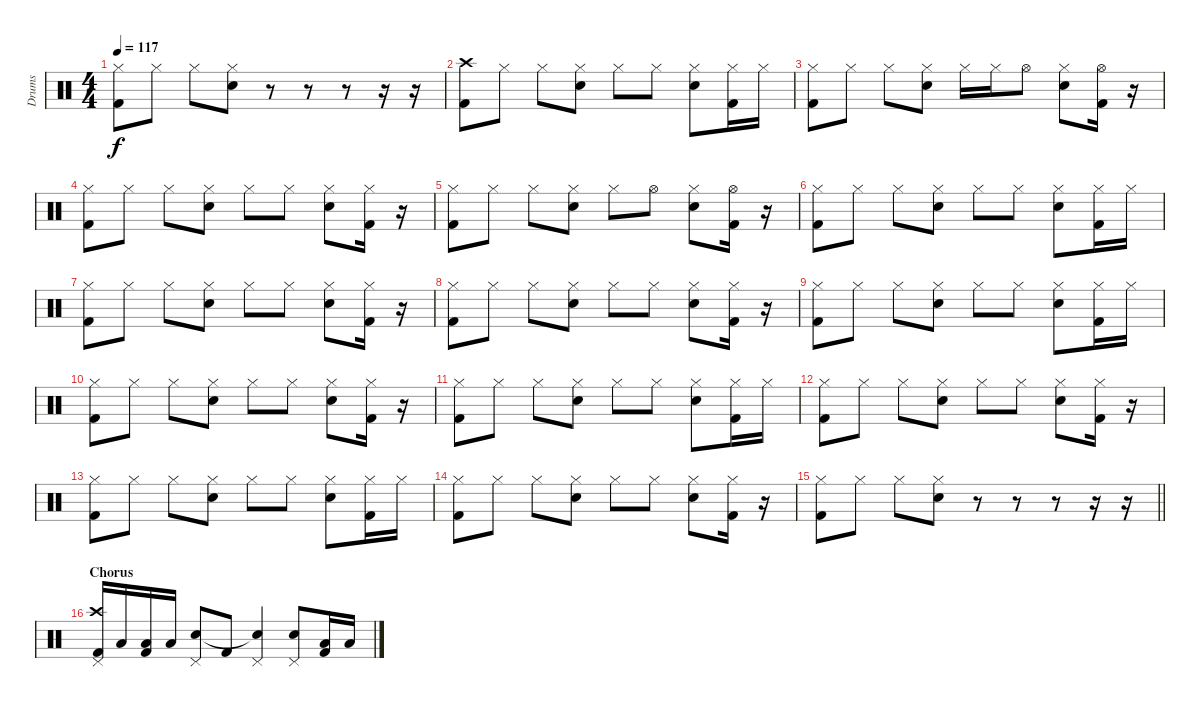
\track ("Drums" "Drums") {instrument percussion}
\staff {score}
\articulation defaults
\ts (4 4)
\tempo 117
\clef neutral
\ks c
("Hi-Hat (closed)" "Kick (hit) 2").8{dy f} "Hi-Hat (closed)".8 "Hi-Hat (closed)".8 ("Hi-Hat (closed)" "Snare (hit) 2").8 r.8 r.8 r.8 r.16 r.16 |
("Crash high (hit)" "Kick (hit) 2").8 "Hi-Hat (closed)".8 "Hi-Hat (closed)".8 ("Hi-Hat (closed)" "Snare (hit) 2").8 "Hi-Hat (closed)".8 "Hi-Hat (closed)".8 ("Hi-Hat (closed)" "Snare (hit) 2").8 ("Hi-Hat (closed)" "Kick (hit) 2").16 "Hi-Hat (closed)".16 |
("Hi-Hat (closed)" "Kick (hit) 2").8 "Hi-Hat (closed)".8 "Hi-Hat (closed)".8 ("Hi-Hat (closed)" "Snare (hit) 2").8 "Hi-Hat (closed)".16 "Hi-Hat (closed)".16 "Hi-Hat (open)".8 ("Hi-Hat (closed)" "Snare (hit) 2").8 ("Hi-Hat (open)" "Kick (hit) 2").16 r.16 |
("Hi-Hat (closed)" "Kick (hit) 2").8 "Hi-Hat (closed)".8 "Hi-Hat (closed)".8 ("Hi-Hat (closed)" "Snare (hit) 2").8 "Hi-Hat (closed)".8 "Hi-Hat (closed)".8 ("Hi-Hat (closed)" "Snare (hit) 2").8 ("Hi-Hat (closed)" "Kick (hit) 2").16 r.16 |
("Hi-Hat (closed)" "Kick (hit) 2").8 "Hi-Hat (closed)".8 "Hi-Hat (closed)".8 ("Hi-Hat (closed)" "Snare (hit) 2").8 "Hi-Hat (closed)".8 "Hi-Hat (open)".8 ("Hi-Hat (closed)" "Snare (hit) 2").8 ("Hi-Hat (open)" "Kick (hit) 2").16 r.16 |
("Hi-Hat (closed)" "Kick (hit) 2").8 "Hi-Hat (closed)".8 "Hi-Hat (closed)".8 ("Hi-Hat (closed)" "Snare (hit) 2").8 "Hi-Hat (closed)".8 "Hi-Hat (closed)".8 ("Hi-Hat (closed)" "Snare (hit) 2").8 ("Hi-Hat (closed)" "Kick (hit) 2").16 "Hi-Hat (closed)".16 |
("Hi-Hat (closed)" "Kick (hit) 2").8 "Hi-Hat (closed)".8 "Hi-Hat (closed)".8 ("Hi-Hat (closed)" "Snare (hit) 2").8 "Hi-Hat (closed)".8 "Hi-Hat (closed)".8 ("Hi-Hat (closed)" "Snare (hit) 2").8 ("Hi-Hat (closed)" "Kick (hit) 2").16 r.16 |
("Hi-Hat (closed)" "Kick (hit) 2").8 "Hi-Hat (closed)".8 "Hi-Hat (closed)".8 ("Hi-Hat (closed)" "Snare (hit) 2").8 "Hi-Hat (closed)".8 "Hi-Hat (closed)".8 ("Hi-Hat (closed)" "Snare (hit) 2").8 ("Hi-Hat (closed)" "Kick (hit) 2").16 r.16 |
("Hi-Hat (closed)" "Kick (hit) 2").8 "Hi-Hat (closed)".8 "Hi-Hat (closed)".8 ("Hi-Hat (closed)" "Snare (hit) 2").8 "Hi-Hat (closed)".8 "Hi-Hat (closed)".8 ("Hi-Hat (closed)" "Snare (hit) 2").8 ("Hi-Hat (closed)" "Kick (hit) 2").16 "Hi-Hat (closed)".16 |
("Hi-Hat (closed)" "Kick (hit) 2").8 "Hi-Hat (closed)".8 "Hi-Hat (closed)".8 ("Hi-Hat (closed)" "Snare (hit) 2").8 "Hi-Hat (closed)".8 "Hi-Hat (closed)".8 ("Hi-Hat (closed)" "Snare (hit) 2").8 ("Hi-Hat (closed)" "Kick (hit) 2").16 r.16 |
("Hi-Hat (closed)" "Kick (hit) 2").8 "Hi-Hat (closed)".8 "Hi-Hat (closed)".8 ("Hi-Hat (closed)" "Snare (hit) 2").8 "Hi-Hat (closed)".8 "Hi-Hat (closed)".8 ("Hi-Hat (closed)" "Snare (hit) 2").8 ("Hi-Hat (closed)" "Kick (hit) 2").16 "Hi-Hat (closed)".16 |
("Hi-Hat (closed)" "Kick (hit) 2").8 "Hi-Hat (closed)".8 "Hi-Hat (closed)".8 ("Hi-Hat (closed)" "Snare (hit) 2").8 "Hi-Hat (closed)".8 "Hi-Hat (closed)".8 ("Hi-Hat (closed)" "Snare (hit) 2").8 ("Hi-Hat (closed)" "Kick (hit) 2").16 r.16 |
("Hi-Hat (closed)" "Kick (hit) 2").8 "Hi-Hat (closed)".8 "Hi-Hat (closed)".8 ("Hi-Hat (closed)" "Snare (hit) 2").8 "Hi-Hat (closed)".8 "Hi-Hat (closed)".8 ("Hi-Hat (closed)" "Snare (hit) 2").8 ("Hi-Hat (closed)" "Kick (hit) 2").16 "Hi-Hat (closed)".16 |
("Hi-Hat (closed)" "Kick (hit) 2").8 "Hi-Hat (closed)".8 "Hi-Hat (closed)".8 ("Hi-Hat (closed)" "Snare (hit) 2").8 "Hi-Hat (closed)".8 "Hi-Hat (closed)".8 ("Hi-Hat (closed)" "Snare (hit) 2").8 ("Hi-Hat (closed)" "Kick (hit) 2").16 r.16 |
\barLineRight lightlight
("Hi-Hat (closed)" "Kick (hit) 2").8 "Hi-Hat (closed)".8 "Hi-Hat (closed)".8 ("Hi-Hat (closed)" "Snare (hit) 2").8 r.8 r.8 r.8 r.16 r.16 |
\section ("" "Chorus")
("Crash high (hit)" "Pedal Hi-Hat (hit)" "Kick (hit) 2").16 "Low Tom (hit)".16 ("Low Floor Tom (hit)" "Kick (hit) 2").16 "Low Floor Tom (hit)".16 ("Pedal Hi-Hat (hit)" "Snare (hit) 2").8 "Kick (hit) 2".8 ("Pedal Hi-Hat (hit)" "Snare (hit)"{t}).4 ("Pedal Hi-Hat (hit)" "Snare (hit) 2").8 ("Low Tom (hit)" "Kick (hit) 2").16 "Low Tom (hit)".16
